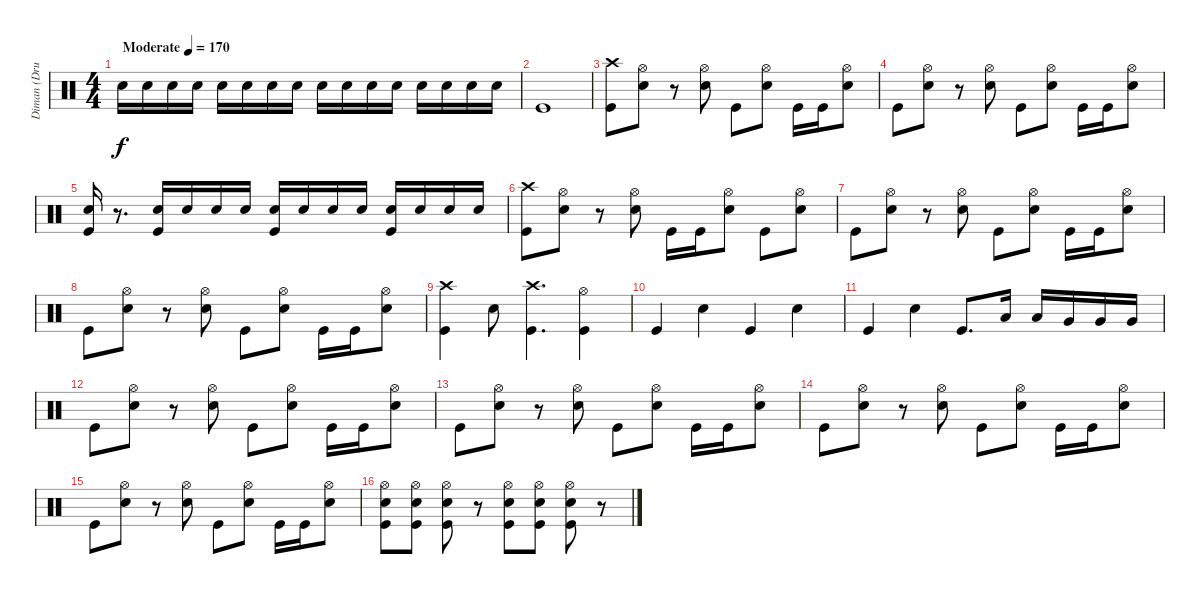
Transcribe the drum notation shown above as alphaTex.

\track ("Diman (Drums)" "Diman (Dru") {instrument percussion}
\staff {score}
\articulation defaults
\ts (4 4)
\tempo (170 "Moderate")
\clef neutral
\ks c "Snare (hit) 2".16{dy f volume 1} "Snare (hit) 2".16{volume 2} "Snare (hit) 2".16{volume 2} "Snare (hit) 2".16{volume 4} "Snare (hit) 2".16{volume 5} "Snare (hit) 2".16{volume 6} "Snare (hit) 2".16{volume 7} "Snare (hit) 2".16{volume 8} "Snare (hit) 2".16{volume 9} "Snare (hit) 2".16{volume 10} "Snare (hit) 2".16{volume 11} "Snare (hit) 2".16{volume 12} "Snare (hit) 2".16{volume 13} "Snare (hit) 2".16{volume 14} "Snare (hit) 2".16{volume 15} "Snare (hit) 2".16{volume 16}
|
"Kick (hit)".1 |
("Crash high (hit)" "Kick (hit)").8 ("Snare (hit) 2" "Hi-Hat (open)").8 r.8 ("Snare (hit) 2" "Hi-Hat (open)").8 "Kick (hit)".8 ("Snare (hit) 2" "Hi-Hat (open)").8 "Kick (hit)".16 "Kick (hit)".16 ("Snare (hit) 2" "Hi-Hat (open)").8 |
"Kick (hit)".8 ("Snare (hit) 2" "Hi-Hat (open)").8 r.8 ("Snare (hit) 2" "Hi-Hat (open)").8 "Kick (hit)".8 ("Snare (hit) 2" "Hi-Hat (open)").8 "Kick (hit)".16 "Kick (hit)".16 ("Snare (hit) 2" "Hi-Hat (open)").8 |
("Kick (hit)" "Snare (hit) 2").16 r.8{d} ("Snare (hit) 2" "Kick (hit)").16 "Snare (hit) 2".16 "Snare (hit) 2".16 "Snare (hit) 2".16 ("Snare (hit) 2" "Kick (hit)").16 "Snare (hit) 2".16 "Snare (hit) 2".16 "Snare (hit) 2".16 ("Snare (hit) 2" "Kick (hit)").16 "Snare (hit) 2".16 "Snare (hit) 2".16 "Snare (hit) 2".16 |
("Crash high (hit)" "Kick (hit)").8 ("Snare (hit) 2" "Hi-Hat (open)").8 r.8 ("Snare (hit) 2" "Hi-Hat (open)").8 "Kick (hit)".16 "Kick (hit)".16 ("Snare (hit) 2" "Hi-Hat (open)").8 "Kick (hit)".8 ("Snare (hit) 2" "Hi-Hat (open)").8 |
"Kick (hit)".8 ("Snare (hit) 2" "Hi-Hat (open)").8 r.8 ("Snare (hit) 2" "Hi-Hat (open)").8 "Kick (hit)".8 ("Snare (hit) 2" "Hi-Hat (open)").8 "Kick (hit)".16 "Kick (hit)".16 ("Snare (hit) 2" "Hi-Hat (open)").8 |
"Kick (hit)".8 ("Snare (hit) 2" "Hi-Hat (open)").8 r.8 ("Snare (hit) 2" "Hi-Hat (open)").8 "Kick (hit)".8 ("Snare (hit) 2" "Hi-Hat (open)").8 "Kick (hit)".16 "Kick (hit)".16 ("Snare (hit) 2" "Hi-Hat (open)").8 |
("Crash high (hit)" "Kick (hit)").4 "Snare (hit) 2".8 ("Crash high (hit)" "Kick (hit)").4{d} ("Hi-Hat (open)" "Kick (hit)").4 |
"Kick (hit)".4 "Snare (hit) 2".4 "Kick (hit)".4 "Snare (hit) 2".4 |
"Kick (hit)".4 "Snare (hit) 2".4 "Kick (hit)".8{d} "Low Tom (hit)".16 "Low Tom (hit)".16 "Very Low Tom (hit)".16 "Very Low Tom (hit)".16 "Very Low Tom (hit)".16 |
"Kick (hit)".8 ("Snare (hit) 2" "Hi-Hat (open)").8 r.8 ("Snare (hit) 2" "Hi-Hat (open)").8 "Kick (hit)".8 ("Snare (hit) 2" "Hi-Hat (open)").8 "Kick (hit)".16 "Kick (hit)".16 ("Snare (hit) 2" "Hi-Hat (open)").8 |
"Kick (hit)".8 ("Snare (hit) 2" "Hi-Hat (open)").8 r.8 ("Snare (hit) 2" "Hi-Hat (open)").8 "Kick (hit)".8 ("Snare (hit) 2" "Hi-Hat (open)").8 "Kick (hit)".16 "Kick (hit)".16 ("Snare (hit) 2" "Hi-Hat (open)").8 |
"Kick (hit)".8 ("Snare (hit) 2" "Hi-Hat (open)").8 r.8 ("Snare (hit) 2" "Hi-Hat (open)").8 "Kick (hit)".8 ("Snare (hit) 2" "Hi-Hat (open)").8 "Kick (hit)".16 "Kick (hit)".16 ("Snare (hit) 2" "Hi-Hat (open)").8 |
"Kick (hit)".8 ("Snare (hit) 2" "Hi-Hat (open)").8 r.8 ("Snare (hit) 2" "Hi-Hat (open)").8 "Kick (hit)".8 ("Snare (hit) 2" "Hi-Hat (open)").8 "Kick (hit)".16 "Kick (hit)".16 ("Snare (hit) 2" "Hi-Hat (open)").8 |
("Kick (hit)" "Snare (hit) 2" "Hi-Hat (open)").8 ("Kick (hit)" "Snare (hit) 2" "Hi-Hat (open)").8 ("Kick (hit)" "Snare (hit) 2" "Hi-Hat (open)").8 r.8 ("Kick (hit)" "Snare (hit) 2" "Hi-Hat (open)").8 ("Kick (hit)" "Snare (hit) 2" "Hi-Hat (open)").8 ("Kick (hit)" "Snare (hit) 2" "Hi-Hat (open)").8 r.8
